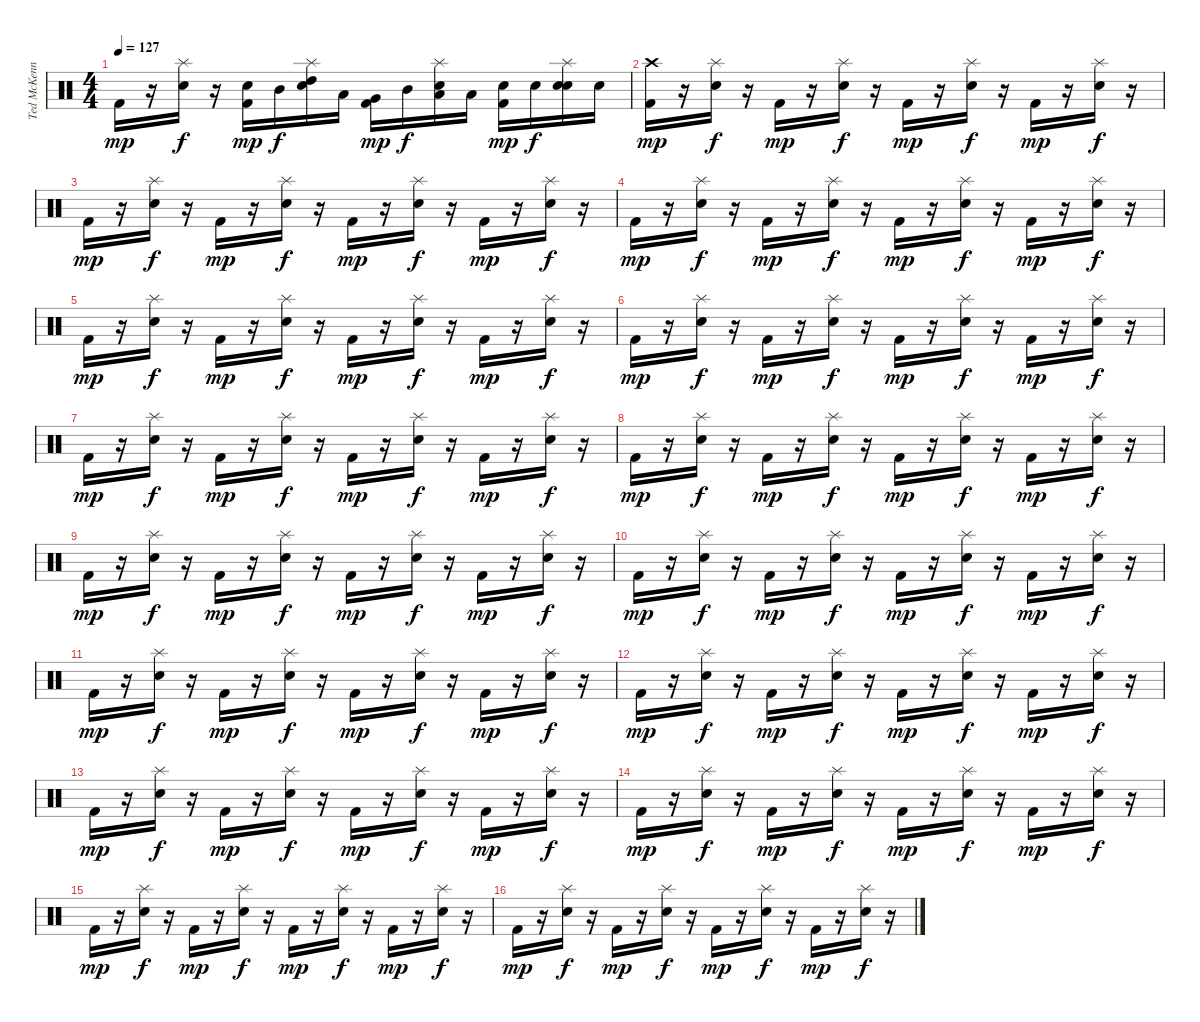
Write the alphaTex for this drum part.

\track ("Ted McKenna" "Ted McKenn") {instrument percussion}
\staff {score}
\articulation defaults
\ts (4 4)
\tempo 127
\clef neutral
\ks c "Kick (hit) 2".16{dy mp}
r.16 ("Splash (hit)" "Snare (hit) 2").16{dy f} r.16 ("Electric Snare (hit)" "Kick (hit) 2").16{dy mp} "Mid Tom (hit)".16{dy f} ("Splash (hit)" "Snare (hit) 2" "High Tom (hit)").16 "Low Tom (hit)".16 ("Very Low Tom (hit)" "Kick (hit) 2").16{dy mp} "Mid Tom (hit)".16{dy f} ("Splash (hit)" "Snare (hit) 2" "Low Tom (hit)").16 "Low Floor Tom (hit)".16 ("Electric Snare (hit)" "Kick (hit) 2").16{dy mp} "Electric Snare (hit)".16{dy f} ("Splash (hit)" "Snare (hit) 2" "Electric Snare (hit)").16 "Electric Snare (hit)".16 |
("Crash high (hit)" "Kick (hit) 2").16{dy mp} r.16 ("Splash (hit)" "Snare (hit) 2").16{dy f} r.16 "Kick (hit) 2".16{dy mp} r.16 ("Splash (hit)" "Snare (hit) 2").16{dy f} r.16 "Kick (hit) 2".16{dy mp} r.16 ("Splash (hit)" "Snare (hit) 2").16{dy f} r.16 "Kick (hit) 2".16{dy mp} r.16 ("Splash (hit)" "Snare (hit) 2").16{dy f} r.16 |
"Kick (hit) 2".16{dy mp} r.16 ("Splash (hit)" "Snare (hit) 2").16{dy f} r.16 "Kick (hit) 2".16{dy mp} r.16 ("Splash (hit)" "Snare (hit) 2").16{dy f} r.16 "Kick (hit) 2".16{dy mp} r.16 ("Splash (hit)" "Snare (hit) 2").16{dy f} r.16 "Kick (hit) 2".16{dy mp} r.16 ("Splash (hit)" "Snare (hit) 2").16{dy f} r.16 |
"Kick (hit) 2".16{dy mp} r.16 ("Splash (hit)" "Snare (hit) 2").16{dy f} r.16 "Kick (hit) 2".16{dy mp} r.16 ("Splash (hit)" "Snare (hit) 2").16{dy f} r.16 "Kick (hit) 2".16{dy mp} r.16 ("Splash (hit)" "Snare (hit) 2").16{dy f} r.16 "Kick (hit) 2".16{dy mp} r.16 ("Splash (hit)" "Snare (hit) 2").16{dy f} r.16 |
"Kick (hit) 2".16{dy mp} r.16 ("Splash (hit)" "Snare (hit) 2").16{dy f} r.16 "Kick (hit) 2".16{dy mp} r.16 ("Splash (hit)" "Snare (hit) 2").16{dy f} r.16 "Kick (hit) 2".16{dy mp} r.16 ("Splash (hit)" "Snare (hit) 2").16{dy f} r.16 "Kick (hit) 2".16{dy mp} r.16 ("Splash (hit)" "Snare (hit) 2").16{dy f} r.16 |
"Kick (hit) 2".16{dy mp} r.16 ("Splash (hit)" "Snare (hit) 2").16{dy f} r.16 "Kick (hit) 2".16{dy mp} r.16 ("Splash (hit)" "Snare (hit) 2").16{dy f} r.16 "Kick (hit) 2".16{dy mp} r.16 ("Splash (hit)" "Snare (hit) 2").16{dy f} r.16 "Kick (hit) 2".16{dy mp} r.16 ("Splash (hit)" "Snare (hit) 2").16{dy f} r.16 |
"Kick (hit) 2".16{dy mp} r.16 ("Splash (hit)" "Snare (hit) 2").16{dy f} r.16 "Kick (hit) 2".16{dy mp} r.16 ("Splash (hit)" "Snare (hit) 2").16{dy f} r.16 "Kick (hit) 2".16{dy mp} r.16 ("Splash (hit)" "Snare (hit) 2").16{dy f} r.16 "Kick (hit) 2".16{dy mp} r.16 ("Splash (hit)" "Snare (hit) 2").16{dy f} r.16 |
"Kick (hit) 2".16{dy mp} r.16 ("Splash (hit)" "Snare (hit) 2").16{dy f} r.16 "Kick (hit) 2".16{dy mp} r.16 ("Splash (hit)" "Snare (hit) 2").16{dy f} r.16 "Kick (hit) 2".16{dy mp} r.16 ("Splash (hit)" "Snare (hit) 2").16{dy f} r.16 "Kick (hit) 2".16{dy mp} r.16 ("Splash (hit)" "Snare (hit) 2").16{dy f} r.16 |
"Kick (hit) 2".16{dy mp} r.16 ("Splash (hit)" "Snare (hit) 2").16{dy f} r.16 "Kick (hit) 2".16{dy mp} r.16 ("Splash (hit)" "Snare (hit) 2").16{dy f} r.16 "Kick (hit) 2".16{dy mp} r.16 ("Splash (hit)" "Snare (hit) 2").16{dy f} r.16 "Kick (hit) 2".16{dy mp} r.16 ("Splash (hit)" "Snare (hit) 2").16{dy f} r.16 |
"Kick (hit) 2".16{dy mp} r.16 ("Splash (hit)" "Snare (hit) 2").16{dy f} r.16 "Kick (hit) 2".16{dy mp} r.16 ("Splash (hit)" "Snare (hit) 2").16{dy f} r.16 "Kick (hit) 2".16{dy mp} r.16 ("Splash (hit)" "Snare (hit) 2").16{dy f} r.16 "Kick (hit) 2".16{dy mp} r.16 ("Splash (hit)" "Snare (hit) 2").16{dy f} r.16 |
"Kick (hit) 2".16{dy mp} r.16 ("Splash (hit)" "Snare (hit) 2").16{dy f} r.16 "Kick (hit) 2".16{dy mp} r.16 ("Splash (hit)" "Snare (hit) 2").16{dy f} r.16 "Kick (hit) 2".16{dy mp} r.16 ("Splash (hit)" "Snare (hit) 2").16{dy f} r.16 "Kick (hit) 2".16{dy mp} r.16 ("Splash (hit)" "Snare (hit) 2").16{dy f} r.16 |
"Kick (hit) 2".16{dy mp} r.16 ("Splash (hit)" "Snare (hit) 2").16{dy f} r.16 "Kick (hit) 2".16{dy mp} r.16 ("Splash (hit)" "Snare (hit) 2").16{dy f} r.16 "Kick (hit) 2".16{dy mp} r.16 ("Splash (hit)" "Snare (hit) 2").16{dy f} r.16 "Kick (hit) 2".16{dy mp} r.16 ("Splash (hit)" "Snare (hit) 2").16{dy f} r.16 |
"Kick (hit) 2".16{dy mp} r.16 ("Splash (hit)" "Snare (hit) 2").16{dy f} r.16 "Kick (hit) 2".16{dy mp} r.16 ("Splash (hit)" "Snare (hit) 2").16{dy f} r.16 "Kick (hit) 2".16{dy mp} r.16 ("Splash (hit)" "Snare (hit) 2").16{dy f} r.16 "Kick (hit) 2".16{dy mp} r.16 ("Splash (hit)" "Snare (hit) 2").16{dy f} r.16 |
"Kick (hit) 2".16{dy mp} r.16 ("Splash (hit)" "Snare (hit) 2").16{dy f} r.16 "Kick (hit) 2".16{dy mp} r.16 ("Splash (hit)" "Snare (hit) 2").16{dy f} r.16 "Kick (hit) 2".16{dy mp} r.16 ("Splash (hit)" "Snare (hit) 2").16{dy f} r.16 "Kick (hit) 2".16{dy mp} r.16 ("Splash (hit)" "Snare (hit) 2").16{dy f} r.16 |
"Kick (hit) 2".16{dy mp} r.16 ("Splash (hit)" "Snare (hit) 2").16{dy f} r.16 "Kick (hit) 2".16{dy mp} r.16 ("Splash (hit)" "Snare (hit) 2").16{dy f} r.16 "Kick (hit) 2".16{dy mp} r.16 ("Splash (hit)" "Snare (hit) 2").16{dy f} r.16 "Kick (hit) 2".16{dy mp} r.16 ("Splash (hit)" "Snare (hit) 2").16{dy f} r.16 |
"Kick (hit) 2".16{dy mp} r.16 ("Splash (hit)" "Snare (hit) 2").16{dy f} r.16 "Kick (hit) 2".16{dy mp} r.16 ("Splash (hit)" "Snare (hit) 2").16{dy f} r.16 "Kick (hit) 2".16{dy mp} r.16 ("Splash (hit)" "Snare (hit) 2").16{dy f} r.16 "Kick (hit) 2".16{dy mp} r.16 ("Splash (hit)" "Snare (hit) 2").16{dy f} r.16
